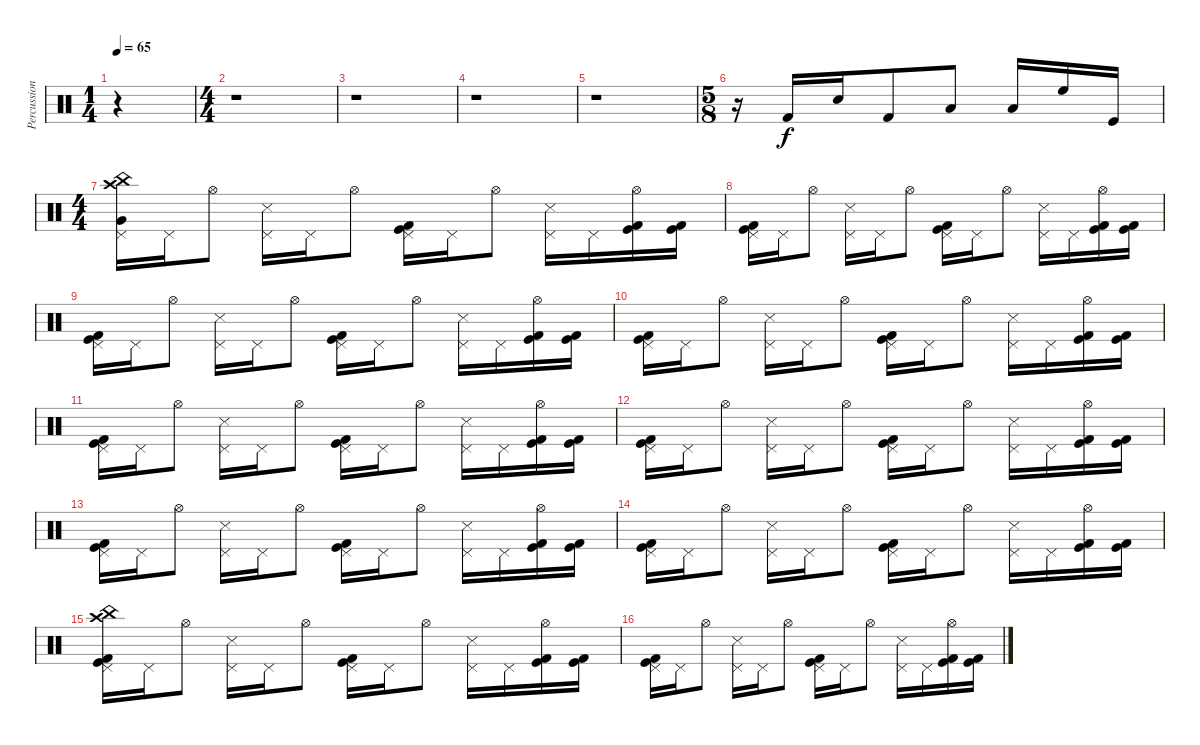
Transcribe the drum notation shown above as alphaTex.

\track ("Percussion" "Percussion") {instrument percussion}
\staff {score}
\articulation defaults
\ts (1 4)
\tempo 65
\clef neutral
\ks c
r.4{dy f} |
\ts (4 4)
r.1 |
r.1 |
r.1 |
r.1 |
\ts (5 8)
r.16 "Kick (hit) 2".16 "Snare (hit) 2".16 "Kick (hit) 2".8 "Low Tom (hit)".8 "Low Tom (hit)".16 "High Floor Tom (hit)".16 "Kick (hit)".16 |
\ts (4 4)
("China (hit)" "Pedal Hi-Hat (hit)" "Very Low Tom (hit)" "Crash high (hit)").16 "Pedal Hi-Hat (hit)".16 "Hi-Hat (open)".8 ("Pedal Hi-Hat (hit)" "Snare (side stick) 3").16 "Pedal Hi-Hat (hit)".16 "Hi-Hat (open)".8 ("Pedal Hi-Hat (hit)" "Kick (hit)" "Kick (hit) 2").16 "Pedal Hi-Hat (hit)".16 "Hi-Hat (open)".8 ("Pedal Hi-Hat (hit)" "Snare (side stick) 3").16 "Pedal Hi-Hat (hit)".16 ("Hi-Hat (open)" "Kick (hit)" "Kick (hit) 2").16 ("Kick (hit)" "Kick (hit) 2").16 |
("Pedal Hi-Hat (hit)" "Kick (hit)" "Kick (hit) 2").16 "Pedal Hi-Hat (hit)".16 "Hi-Hat (open)".8 ("Pedal Hi-Hat (hit)" "Snare (side stick) 3").16 "Pedal Hi-Hat (hit)".16 "Hi-Hat (open)".8 ("Pedal Hi-Hat (hit)" "Kick (hit) 2" "Kick (hit)").16 "Pedal Hi-Hat (hit)".16 "Hi-Hat (open)".8 ("Pedal Hi-Hat (hit)" "Snare (side stick) 3").16 "Pedal Hi-Hat (hit)".16 ("Hi-Hat (open)" "Kick (hit)" "Kick (hit) 2").16 ("Kick (hit)" "Kick (hit) 2").16 |
("Pedal Hi-Hat (hit)" "Kick (hit)" "Kick (hit) 2").16 "Pedal Hi-Hat (hit)".16 "Hi-Hat (open)".8 ("Pedal Hi-Hat (hit)" "Metronome (hit)").16 "Pedal Hi-Hat (hit)".16 "Hi-Hat (open)".8 ("Pedal Hi-Hat (hit)" "Kick (hit) 2" "Kick (hit)").16 "Pedal Hi-Hat (hit)".16 "Hi-Hat (open)".8 ("Pedal Hi-Hat (hit)" "Snare (side stick) 3").16 "Pedal Hi-Hat (hit)".16 ("Hi-Hat (open)" "Kick (hit)" "Kick (hit) 2").16 ("Kick (hit)" "Kick (hit) 2").16 |
("Pedal Hi-Hat (hit)" "Kick (hit)" "Kick (hit) 2").16 "Pedal Hi-Hat (hit)".16 "Hi-Hat (open)".8 ("Pedal Hi-Hat (hit)" "Snare (side stick) 3").16 "Pedal Hi-Hat (hit)".16 "Hi-Hat (open)".8 ("Pedal Hi-Hat (hit)" "Kick (hit) 2" "Kick (hit)").16 "Pedal Hi-Hat (hit)".16 "Hi-Hat (open)".8 ("Pedal Hi-Hat (hit)" "Snare (side stick) 3").16 "Pedal Hi-Hat (hit)".16 ("Hi-Hat (open)" "Kick (hit)" "Kick (hit) 2").16 ("Kick (hit)" "Kick (hit) 2").16 |
("Pedal Hi-Hat (hit)" "Kick (hit)" "Kick (hit) 2").16 "Pedal Hi-Hat (hit)".16 "Hi-Hat (open)".8 ("Pedal Hi-Hat (hit)" "Snare (side stick) 3").16 "Pedal Hi-Hat (hit)".16 "Hi-Hat (open)".8 ("Pedal Hi-Hat (hit)" "Kick (hit) 2" "Kick (hit)").16 "Pedal Hi-Hat (hit)".16 "Hi-Hat (open)".8 ("Pedal Hi-Hat (hit)" "Snare (side stick) 3").16 "Pedal Hi-Hat (hit)".16 ("Hi-Hat (open)" "Kick (hit)" "Kick (hit) 2").16 ("Kick (hit)" "Kick (hit) 2").16 |
("Pedal Hi-Hat (hit)" "Kick (hit)" "Kick (hit) 2").16 "Pedal Hi-Hat (hit)".16 "Hi-Hat (open)".8 ("Pedal Hi-Hat (hit)" "Snare (side stick) 3").16 "Pedal Hi-Hat (hit)".16 "Hi-Hat (open)".8 ("Pedal Hi-Hat (hit)" "Kick (hit) 2" "Kick (hit)").16 "Pedal Hi-Hat (hit)".16 "Hi-Hat (open)".8 ("Pedal Hi-Hat (hit)" "Snare (side stick) 3").16 "Pedal Hi-Hat (hit)".16 ("Hi-Hat (open)" "Kick (hit)" "Kick (hit) 2").16 ("Kick (hit)" "Kick (hit) 2").16 |
("Pedal Hi-Hat (hit)" "Kick (hit)" "Kick (hit) 2").16 "Pedal Hi-Hat (hit)".16 "Hi-Hat (open)".8 ("Pedal Hi-Hat (hit)" "Snare (side stick) 3").16 "Pedal Hi-Hat (hit)".16 "Hi-Hat (open)".8 ("Pedal Hi-Hat (hit)" "Kick (hit) 2" "Kick (hit)").16 "Pedal Hi-Hat (hit)".16 "Hi-Hat (open)".8 ("Pedal Hi-Hat (hit)" "Snare (side stick) 3").16 "Pedal Hi-Hat (hit)".16 ("Hi-Hat (open)" "Kick (hit)" "Kick (hit) 2").16 ("Kick (hit)" "Kick (hit) 2").16 |
("Pedal Hi-Hat (hit)" "Kick (hit)" "Kick (hit) 2").16 "Pedal Hi-Hat (hit)".16 "Hi-Hat (open)".8 ("Pedal Hi-Hat (hit)" "Snare (side stick) 3").16 "Pedal Hi-Hat (hit)".16 "Hi-Hat (open)".8 ("Pedal Hi-Hat (hit)" "Kick (hit) 2" "Kick (hit)").16 "Pedal Hi-Hat (hit)".16 "Hi-Hat (open)".8 ("Pedal Hi-Hat (hit)" "Snare (side stick) 3").16 "Pedal Hi-Hat (hit)".16 ("Hi-Hat (open)" "Kick (hit)" "Kick (hit) 2").16 ("Kick (hit)" "Kick (hit) 2").16 |
("Crash high (hit)" "Pedal Hi-Hat (hit)" "Kick (hit)" "Kick (hit) 2" "China (hit)").16 "Pedal Hi-Hat (hit)".16 "Hi-Hat (open)".8 ("Pedal Hi-Hat (hit)" "Snare (side stick) 3").16 "Pedal Hi-Hat (hit)".16 "Hi-Hat (open)".8 ("Pedal Hi-Hat (hit)" "Kick (hit) 2" "Kick (hit)").16 "Pedal Hi-Hat (hit)".16 "Hi-Hat (open)".8 ("Pedal Hi-Hat (hit)" "Snare (side stick) 3").16 "Pedal Hi-Hat (hit)".16 ("Hi-Hat (open)" "Kick (hit)" "Kick (hit) 2").16 ("Kick (hit)" "Kick (hit) 2").16 |
("Pedal Hi-Hat (hit)" "Kick (hit)" "Kick (hit) 2").16 "Pedal Hi-Hat (hit)".16 "Hi-Hat (open)".8 ("Pedal Hi-Hat (hit)" "Snare (side stick) 3").16 "Pedal Hi-Hat (hit)".16 "Hi-Hat (open)".8 ("Pedal Hi-Hat (hit)" "Kick (hit) 2" "Kick (hit)").16 "Pedal Hi-Hat (hit)".16 "Hi-Hat (open)".8 ("Pedal Hi-Hat (hit)" "Snare (side stick) 3").16 "Pedal Hi-Hat (hit)".16 ("Hi-Hat (open)" "Kick (hit)" "Kick (hit) 2").16 ("Kick (hit)" "Kick (hit) 2").16
